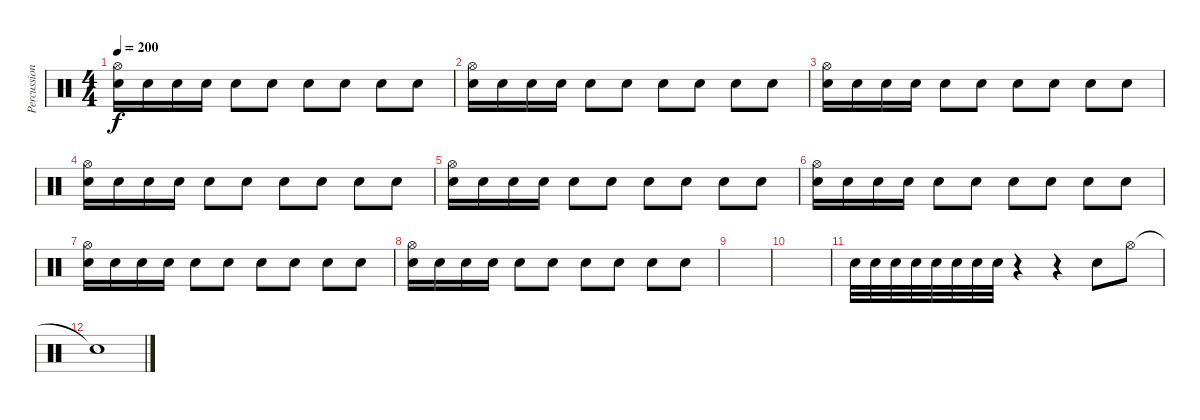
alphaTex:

\track ("Percussion" "Percussion") {instrument percussion}
\staff {score}
\articulation defaults
\ts (4 4)
\tempo 200
\clef neutral
\ks c
("Hi-Hat (open)" "Snare (hit) 2").16{dy f} "Snare (hit) 2".16 "Snare (hit) 2".16 "Snare (hit) 2".16 "Snare (hit) 2".8 "Snare (hit) 2".8 "Snare (hit) 2".8 "Snare (hit) 2".8 "Snare (hit) 2".8 "Snare (hit) 2".8 |
("Hi-Hat (open)" "Snare (hit) 2").16 "Snare (hit) 2".16 "Snare (hit) 2".16 "Snare (hit) 2".16 "Snare (hit) 2".8 "Snare (hit) 2".8 "Snare (hit) 2".8 "Snare (hit) 2".8 "Snare (hit) 2".8 "Snare (hit) 2".8 |
("Hi-Hat (open)" "Snare (hit) 2").16 "Snare (hit) 2".16 "Snare (hit) 2".16 "Snare (hit) 2".16 "Snare (hit) 2".8 "Snare (hit) 2".8 "Snare (hit) 2".8 "Snare (hit) 2".8 "Snare (hit) 2".8 "Snare (hit) 2".8 |
("Hi-Hat (open)" "Snare (hit) 2").16 "Snare (hit) 2".16 "Snare (hit) 2".16 "Snare (hit) 2".16 "Snare (hit) 2".8 "Snare (hit) 2".8 "Snare (hit) 2".8 "Snare (hit) 2".8 "Snare (hit) 2".8 "Snare (hit) 2".8 |
("Hi-Hat (open)" "Snare (hit) 2").16 "Snare (hit) 2".16 "Snare (hit) 2".16 "Snare (hit) 2".16 "Snare (hit) 2".8 "Snare (hit) 2".8 "Snare (hit) 2".8 "Snare (hit) 2".8 "Snare (hit) 2".8 "Snare (hit) 2".8 |
("Hi-Hat (open)" "Snare (hit) 2").16 "Snare (hit) 2".16 "Snare (hit) 2".16 "Snare (hit) 2".16 "Snare (hit) 2".8 "Snare (hit) 2".8 "Snare (hit) 2".8 "Snare (hit) 2".8 "Snare (hit) 2".8 "Snare (hit) 2".8 |
("Hi-Hat (open)" "Snare (hit) 2").16 "Snare (hit) 2".16 "Snare (hit) 2".16 "Snare (hit) 2".16 "Snare (hit) 2".8 "Snare (hit) 2".8 "Snare (hit) 2".8 "Snare (hit) 2".8 "Snare (hit) 2".8 "Snare (hit) 2".8 |
("Hi-Hat (open)" "Snare (hit) 2").16 "Snare (hit) 2".16 "Snare (hit) 2".16 "Snare (hit) 2".16 "Snare (hit) 2".8 "Snare (hit) 2".8 "Snare (hit) 2".8 "Snare (hit) 2".8 "Snare (hit) 2".8 "Snare (hit) 2".8 |
|
|
"Snare (hit) 2".32 "Snare (hit) 2".32 "Snare (hit) 2".32 "Snare (hit) 2".32 "Snare (hit) 2".32 "Snare (hit) 2".32 "Snare (hit) 2".32 "Snare (hit) 2".32 r.4 r.4 "Snare (hit) 2".8 "Hi-Hat (open)".8 |
"Snare (hit)"{t}.1
